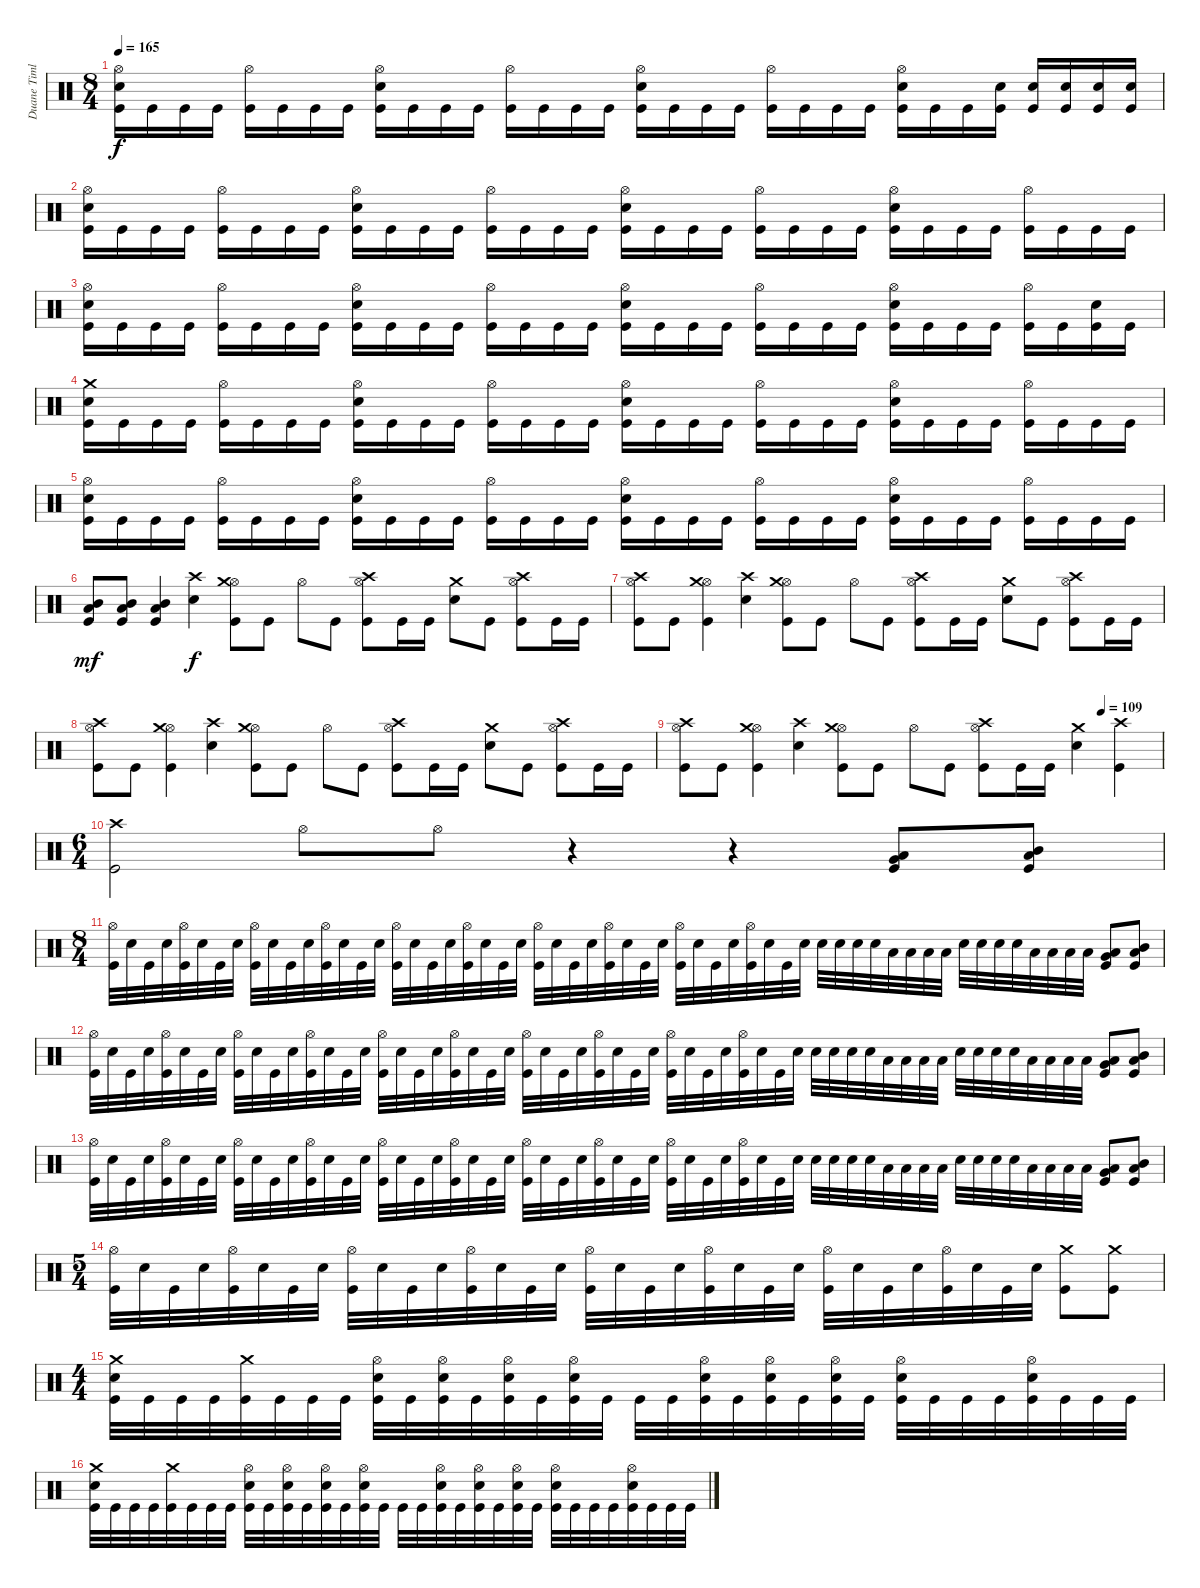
\track ("Duane Timlin" "Duane Timl") {instrument percussion}
\staff {score}
\articulation defaults
\ts (8 4)
\tempo 165
\clef neutral
\ks c
("Kick (hit)" "Snare (hit) 2" "Hi-Hat (open)").16{dy f} "Kick (hit)".16 "Kick (hit)".16 "Kick (hit)".16 ("Kick (hit)" "Hi-Hat (open)").16 "Kick (hit)".16 "Kick (hit)".16 "Kick (hit)".16 ("Kick (hit)" "Snare (hit) 2" "Hi-Hat (open)").16 "Kick (hit)".16 "Kick (hit)".16 "Kick (hit)".16 ("Kick (hit)" "Hi-Hat (open)").16 "Kick (hit)".16 "Kick (hit)".16 "Kick (hit)".16 ("Kick (hit)" "Snare (hit) 2" "Hi-Hat (open)").16 "Kick (hit)".16 "Kick (hit)".16 "Kick (hit)".16 ("Kick (hit)" "Hi-Hat (open)").16 "Kick (hit)".16 "Kick (hit)".16 "Kick (hit)".16 ("Kick (hit)" "Snare (hit) 2" "Hi-Hat (open)").16 "Kick (hit)".16 "Kick (hit)".16 ("Kick (hit)" "Snare (hit) 2").16 ("Kick (hit)" "Snare (hit) 2").16 ("Kick (hit)" "Snare (hit) 2").16 ("Kick (hit)" "Snare (hit) 2").16 ("Kick (hit)" "Snare (hit) 2").16 |
("Kick (hit)" "Snare (hit) 2" "Hi-Hat (open)").16 "Kick (hit)".16 "Kick (hit)".16 "Kick (hit)".16 ("Kick (hit)" "Hi-Hat (open)").16 "Kick (hit)".16 "Kick (hit)".16 "Kick (hit)".16 ("Kick (hit)" "Snare (hit) 2" "Hi-Hat (open)").16 "Kick (hit)".16 "Kick (hit)".16 "Kick (hit)".16 ("Kick (hit)" "Hi-Hat (open)").16 "Kick (hit)".16 "Kick (hit)".16 "Kick (hit)".16 ("Kick (hit)" "Snare (hit) 2" "Hi-Hat (open)").16 "Kick (hit)".16 "Kick (hit)".16 "Kick (hit)".16 ("Kick (hit)" "Hi-Hat (open)").16 "Kick (hit)".16 "Kick (hit)".16 "Kick (hit)".16 ("Kick (hit)" "Snare (hit) 2" "Hi-Hat (open)").16 "Kick (hit)".16 "Kick (hit)".16 "Kick (hit)".16 ("Kick (hit)" "Hi-Hat (open)").16 "Kick (hit)".16 "Kick (hit)".16 "Kick (hit)".16 |
("Kick (hit)" "Snare (hit) 2" "Hi-Hat (open)").16 "Kick (hit)".16 "Kick (hit)".16 "Kick (hit)".16 ("Kick (hit)" "Hi-Hat (open)").16 "Kick (hit)".16 "Kick (hit)".16 "Kick (hit)".16 ("Kick (hit)" "Snare (hit) 2" "Hi-Hat (open)").16 "Kick (hit)".16 "Kick (hit)".16 "Kick (hit)".16 ("Kick (hit)" "Hi-Hat (open)").16 "Kick (hit)".16 "Kick (hit)".16 "Kick (hit)".16 ("Kick (hit)" "Snare (hit) 2" "Hi-Hat (open)").16 "Kick (hit)".16 "Kick (hit)".16 "Kick (hit)".16 ("Kick (hit)" "Hi-Hat (open)").16 "Kick (hit)".16 "Kick (hit)".16 "Kick (hit)".16 ("Kick (hit)" "Snare (hit) 2" "Hi-Hat (open)").16 "Kick (hit)".16 "Kick (hit)".16 "Kick (hit)".16 ("Kick (hit)" "Hi-Hat (open)").16 "Kick (hit)".16 ("Kick (hit)" "Snare (hit) 2").16 "Kick (hit)".16 |
("Kick (hit)" "Snare (hit) 2" "Crash medium (hit)").16 "Kick (hit)".16 "Kick (hit)".16 "Kick (hit)".16 ("Kick (hit)" "Hi-Hat (open)").16 "Kick (hit)".16 "Kick (hit)".16 "Kick (hit)".16 ("Kick (hit)" "Snare (hit) 2" "Hi-Hat (open)").16 "Kick (hit)".16 "Kick (hit)".16 "Kick (hit)".16 ("Kick (hit)" "Hi-Hat (open)").16 "Kick (hit)".16 "Kick (hit)".16 "Kick (hit)".16 ("Kick (hit)" "Snare (hit) 2" "Hi-Hat (open)").16 "Kick (hit)".16 "Kick (hit)".16 "Kick (hit)".16 ("Kick (hit)" "Hi-Hat (open)").16 "Kick (hit)".16 "Kick (hit)".16 "Kick (hit)".16 ("Kick (hit)" "Snare (hit) 2" "Hi-Hat (open)").16 "Kick (hit)".16 "Kick (hit)".16 "Kick (hit)".16 ("Kick (hit)" "Hi-Hat (open)").16 "Kick (hit)".16 "Kick (hit)".16 "Kick (hit)".16 |
("Kick (hit)" "Snare (hit) 2" "Hi-Hat (open)").16 "Kick (hit)".16 "Kick (hit)".16 "Kick (hit)".16 ("Kick (hit)" "Hi-Hat (open)").16 "Kick (hit)".16 "Kick (hit)".16 "Kick (hit)".16 ("Kick (hit)" "Snare (hit) 2" "Hi-Hat (open)").16 "Kick (hit)".16 "Kick (hit)".16 "Kick (hit)".16 ("Kick (hit)" "Hi-Hat (open)").16 "Kick (hit)".16 "Kick (hit)".16 "Kick (hit)".16 ("Kick (hit)" "Snare (hit) 2" "Hi-Hat (open)").16 "Kick (hit)".16 "Kick (hit)".16 "Kick (hit)".16 ("Kick (hit)" "Hi-Hat (open)").16 "Kick (hit)".16 "Kick (hit)".16 "Kick (hit)".16 ("Kick (hit)" "Snare (hit) 2" "Hi-Hat (open)").16 "Kick (hit)".16 "Kick (hit)".16 "Kick (hit)".16 ("Kick (hit)" "Hi-Hat (open)").16 "Kick (hit)".16 "Kick (hit)".16 "Kick (hit)".16 |
\section ("" "")
("Low Tom (hit)" "Kick (hit)" "Mid Tom (hit)").8{dy mf} ("Low Tom (hit)" "Kick (hit)" "Mid Tom (hit)").8 ("Low Tom (hit)" "Kick (hit)" "Mid Tom (hit)").4 ("Snare (hit) 2" "Crash high (hit)").4{dy f} ("Kick (hit)" "Hi-Hat (open)" "Crash medium (hit)").8 "Kick (hit)".8 "Hi-Hat (open)".8 "Kick (hit)".8 ("Kick (hit)" "Crash high (hit)" "Hi-Hat (open)").8 "Kick (hit)".16 "Kick (hit)".16 ("Snare (hit) 2" "Crash medium (hit)").8 "Kick (hit)".8 ("Kick (hit)" "Crash high (hit)" "Hi-Hat (open)").8 "Kick (hit)".16 "Kick (hit)".16 |
("Kick (hit)" "Hi-Hat (open)" "Crash high (hit)").8 "Kick (hit)".8 ("Kick (hit)" "Hi-Hat (open)" "Crash medium (hit)").4 ("Snare (hit) 2" "Crash high (hit)").4 ("Kick (hit)" "Hi-Hat (open)" "Crash medium (hit)").8 "Kick (hit)".8 "Hi-Hat (open)".8 "Kick (hit)".8 ("Kick (hit)" "Crash high (hit)" "Hi-Hat (open)").8 "Kick (hit)".16 "Kick (hit)".16 ("Snare (hit) 2" "Crash medium (hit)").8 "Kick (hit)".8 ("Kick (hit)" "Crash high (hit)" "Hi-Hat (open)").8 "Kick (hit)".16 "Kick (hit)".16 |
("Kick (hit)" "Hi-Hat (open)" "Crash high (hit)").8 "Kick (hit)".8 ("Kick (hit)" "Hi-Hat (open)" "Crash medium (hit)").4 ("Snare (hit) 2" "Crash high (hit)").4 ("Kick (hit)" "Hi-Hat (open)" "Crash medium (hit)").8 "Kick (hit)".8 "Hi-Hat (open)".8 "Kick (hit)".8 ("Kick (hit)" "Crash high (hit)" "Hi-Hat (open)").8 "Kick (hit)".16 "Kick (hit)".16 ("Snare (hit) 2" "Crash medium (hit)").8 "Kick (hit)".8 ("Kick (hit)" "Crash high (hit)" "Hi-Hat (open)").8 "Kick (hit)".16 "Kick (hit)".16 |
\tempo (109 0.875)
("Kick (hit)" "Hi-Hat (open)" "Crash high (hit)").8 "Kick (hit)".8 ("Kick (hit)" "Hi-Hat (open)" "Crash medium (hit)").4 ("Snare (hit) 2" "Crash high (hit)").4 ("Kick (hit)" "Hi-Hat (open)" "Crash medium (hit)").8 "Kick (hit)".8 "Hi-Hat (open)".8 "Kick (hit)".8 ("Kick (hit)" "Crash high (hit)" "Hi-Hat (open)").8 "Kick (hit)".16 "Kick (hit)".16 ("Snare (hit) 2" "Crash medium (hit)").4 ("Kick (hit)" "Crash high (hit)").4 |
\ts (6 4)
\section ("" "")
("Kick (hit)" "Crash high (hit)").2 "Hi-Hat (open)".8 "Hi-Hat (open)".8 r.4 r.4 ("Kick (hit)" "Low Tom (hit)" "Very Low Tom (hit)").8 ("Kick (hit)" "Mid Tom (hit)" "Low Tom (hit)").8 |
\ts (8 4)
("Kick (hit)" "Hi-Hat (open)").32 "Snare (hit) 2".32 "Kick (hit)".32 "Snare (hit) 2".32 ("Kick (hit)" "Hi-Hat (open)").32 "Snare (hit) 2".32 "Kick (hit)".32 "Snare (hit) 2".32 ("Kick (hit)" "Hi-Hat (open)").32 "Snare (hit) 2".32 "Kick (hit)".32 "Snare (hit) 2".32 ("Kick (hit)" "Hi-Hat (open)").32 "Snare (hit) 2".32 "Kick (hit)".32 "Snare (hit) 2".32 ("Kick (hit)" "Hi-Hat (open)").32 "Snare (hit) 2".32 "Kick (hit)".32 "Snare (hit) 2".32 ("Kick (hit)" "Hi-Hat (open)").32 "Snare (hit) 2".32 "Kick (hit)".32 "Snare (hit) 2".32 ("Kick (hit)" "Hi-Hat (open)").32 "Snare (hit) 2".32 "Kick (hit)".32 "Snare (hit) 2".32 ("Kick (hit)" "Hi-Hat (open)").32 "Snare (hit) 2".32 "Kick (hit)".32 "Snare (hit) 2".32 ("Kick (hit)" "Hi-Hat (open)").32 "Snare (hit) 2".32 "Kick (hit)".32 "Snare (hit) 2".32 ("Kick (hit)" "Hi-Hat (open)").32 "Snare (hit) 2".32 "Kick (hit)".32 "Snare (hit) 2".32 "Snare (hit) 2".32 "Snare (hit) 2".32 "Snare (hit) 2".32 "Snare (hit) 2".32 "Low Tom (hit)".32 "Low Tom (hit)".32 "Low Tom (hit)".32 "Low Tom (hit)".32 "Snare (hit) 2".32 "Snare (hit) 2".32 "Snare (hit) 2".32 "Snare (hit) 2".32 "Low Tom (hit)".32 "Low Tom (hit)".32 "Low Tom (hit)".32 "Low Tom (hit)".32 ("Kick (hit)" "Low Tom (hit)" "Very Low Tom (hit)").8 ("Kick (hit)" "Mid Tom (hit)" "Low Tom (hit)").8 |
("Kick (hit)" "Hi-Hat (open)").32 "Snare (hit) 2".32 "Kick (hit)".32 "Snare (hit) 2".32 ("Kick (hit)" "Hi-Hat (open)").32 "Snare (hit) 2".32 "Kick (hit)".32 "Snare (hit) 2".32 ("Kick (hit)" "Hi-Hat (open)").32 "Snare (hit) 2".32 "Kick (hit)".32 "Snare (hit) 2".32 ("Kick (hit)" "Hi-Hat (open)").32 "Snare (hit) 2".32 "Kick (hit)".32 "Snare (hit) 2".32 ("Kick (hit)" "Hi-Hat (open)").32 "Snare (hit) 2".32 "Kick (hit)".32 "Snare (hit) 2".32 ("Kick (hit)" "Hi-Hat (open)").32 "Snare (hit) 2".32 "Kick (hit)".32 "Snare (hit) 2".32 ("Kick (hit)" "Hi-Hat (open)").32 "Snare (hit) 2".32 "Kick (hit)".32 "Snare (hit) 2".32 ("Kick (hit)" "Hi-Hat (open)").32 "Snare (hit) 2".32 "Kick (hit)".32 "Snare (hit) 2".32 ("Kick (hit)" "Hi-Hat (open)").32 "Snare (hit) 2".32 "Kick (hit)".32 "Snare (hit) 2".32 ("Kick (hit)" "Hi-Hat (open)").32 "Snare (hit) 2".32 "Kick (hit)".32 "Snare (hit) 2".32 "Snare (hit) 2".32 "Snare (hit) 2".32 "Snare (hit) 2".32 "Snare (hit) 2".32 "Low Tom (hit)".32 "Low Tom (hit)".32 "Low Tom (hit)".32 "Low Tom (hit)".32 "Snare (hit) 2".32 "Snare (hit) 2".32 "Snare (hit) 2".32 "Snare (hit) 2".32 "Low Tom (hit)".32 "Low Tom (hit)".32 "Low Tom (hit)".32 "Low Tom (hit)".32 ("Kick (hit)" "Low Tom (hit)" "Very Low Tom (hit)").8 ("Kick (hit)" "Mid Tom (hit)" "Low Tom (hit)").8 |
("Kick (hit)" "Hi-Hat (open)").32 "Snare (hit) 2".32 "Kick (hit)".32 "Snare (hit) 2".32 ("Kick (hit)" "Hi-Hat (open)").32 "Snare (hit) 2".32 "Kick (hit)".32 "Snare (hit) 2".32 ("Kick (hit)" "Hi-Hat (open)").32 "Snare (hit) 2".32 "Kick (hit)".32 "Snare (hit) 2".32 ("Kick (hit)" "Hi-Hat (open)").32 "Snare (hit) 2".32 "Kick (hit)".32 "Snare (hit) 2".32 ("Kick (hit)" "Hi-Hat (open)").32 "Snare (hit) 2".32 "Kick (hit)".32 "Snare (hit) 2".32 ("Kick (hit)" "Hi-Hat (open)").32 "Snare (hit) 2".32 "Kick (hit)".32 "Snare (hit) 2".32 ("Kick (hit)" "Hi-Hat (open)").32 "Snare (hit) 2".32 "Kick (hit)".32 "Snare (hit) 2".32 ("Kick (hit)" "Hi-Hat (open)").32 "Snare (hit) 2".32 "Kick (hit)".32 "Snare (hit) 2".32 ("Kick (hit)" "Hi-Hat (open)").32 "Snare (hit) 2".32 "Kick (hit)".32 "Snare (hit) 2".32 ("Kick (hit)" "Hi-Hat (open)").32 "Snare (hit) 2".32 "Kick (hit)".32 "Snare (hit) 2".32 "Snare (hit) 2".32 "Snare (hit) 2".32 "Snare (hit) 2".32 "Snare (hit) 2".32 "Low Tom (hit)".32 "Low Tom (hit)".32 "Low Tom (hit)".32 "Low Tom (hit)".32 "Snare (hit) 2".32 "Snare (hit) 2".32 "Snare (hit) 2".32 "Snare (hit) 2".32 "Low Tom (hit)".32 "Low Tom (hit)".32 "Low Tom (hit)".32 "Low Tom (hit)".32 ("Kick (hit)" "Low Tom (hit)" "Very Low Tom (hit)").8 ("Kick (hit)" "Mid Tom (hit)" "Low Tom (hit)").8 |
\ts (5 4)
("Kick (hit)" "Hi-Hat (open)").32 "Snare (hit) 2".32 "Kick (hit)".32 "Snare (hit) 2".32 ("Kick (hit)" "Hi-Hat (open)").32 "Snare (hit) 2".32 "Kick (hit)".32 "Snare (hit) 2".32 ("Kick (hit)" "Hi-Hat (open)").32 "Snare (hit) 2".32 "Kick (hit)".32 "Snare (hit) 2".32 ("Kick (hit)" "Hi-Hat (open)").32 "Snare (hit) 2".32 "Kick (hit)".32 "Snare (hit) 2".32 ("Kick (hit)" "Hi-Hat (open)").32 "Snare (hit) 2".32 "Kick (hit)".32 "Snare (hit) 2".32 ("Kick (hit)" "Hi-Hat (open)").32 "Snare (hit) 2".32 "Kick (hit)".32 "Snare (hit) 2".32 ("Kick (hit)" "Hi-Hat (open)").32 "Snare (hit) 2".32 "Kick (hit)".32 "Snare (hit) 2".32 ("Kick (hit)" "Hi-Hat (open)").32 "Snare (hit) 2".32 "Kick (hit)".32 "Snare (hit) 2".32 ("Kick (hit)" "Crash medium (hit)").8 ("Kick (hit)" "Crash medium (hit)").8 |
\ts (4 4)
\section ("" "")
("Kick (hit)" "Crash medium (hit)" "Snare (hit) 2").32 "Kick (hit)".32 "Kick (hit)".32 "Kick (hit)".32 ("Kick (hit)" "Crash medium (hit)").32 "Kick (hit)".32 "Kick (hit)".32 "Kick (hit)".32 ("Kick (hit)" "Snare (hit) 2" "Hi-Hat (open)").32 "Kick (hit)".32 ("Kick (hit)" "Snare (hit) 2" "Hi-Hat (open)").32 "Kick (hit)".32 ("Kick (hit)" "Snare (hit) 2" "Hi-Hat (open)").32 "Kick (hit)".32 ("Kick (hit)" "Snare (hit) 2" "Hi-Hat (open)").32 "Kick (hit)".32 "Kick (hit)".32 "Kick (hit)".32 ("Kick (hit)" "Snare (hit) 2" "Hi-Hat (open)").32 "Kick (hit)".32 ("Kick (hit)" "Snare (hit) 2" "Hi-Hat (open)").32 "Kick (hit)".32 ("Kick (hit)" "Snare (hit) 2" "Hi-Hat (open)").32 "Kick (hit)".32 ("Kick (hit)" "Snare (hit) 2" "Hi-Hat (open)").32 "Kick (hit)".32 "Kick (hit)".32 "Kick (hit)".32 ("Kick (hit)" "Snare (hit) 2" "Hi-Hat (open)").32 "Kick (hit)".32 "Kick (hit)".32 "Kick (hit)".32 |
("Kick (hit)" "Crash medium (hit)" "Snare (hit) 2").32 "Kick (hit)".32 "Kick (hit)".32 "Kick (hit)".32 ("Kick (hit)" "Crash medium (hit)").32 "Kick (hit)".32 "Kick (hit)".32 "Kick (hit)".32 ("Kick (hit)" "Snare (hit) 2" "Hi-Hat (open)").32 "Kick (hit)".32 ("Kick (hit)" "Snare (hit) 2" "Hi-Hat (open)").32 "Kick (hit)".32 ("Kick (hit)" "Snare (hit) 2" "Hi-Hat (open)").32 "Kick (hit)".32 ("Kick (hit)" "Snare (hit) 2" "Hi-Hat (open)").32 "Kick (hit)".32 "Kick (hit)".32 "Kick (hit)".32 ("Kick (hit)" "Snare (hit) 2" "Hi-Hat (open)").32 "Kick (hit)".32 ("Kick (hit)" "Snare (hit) 2" "Hi-Hat (open)").32 "Kick (hit)".32 ("Kick (hit)" "Snare (hit) 2" "Hi-Hat (open)").32 "Kick (hit)".32 ("Kick (hit)" "Snare (hit) 2" "Hi-Hat (open)").32 "Kick (hit)".32 "Kick (hit)".32 "Kick (hit)".32 ("Kick (hit)" "Snare (hit) 2" "Hi-Hat (open)").32 "Kick (hit)".32 "Kick (hit)".32 "Kick (hit)".32
